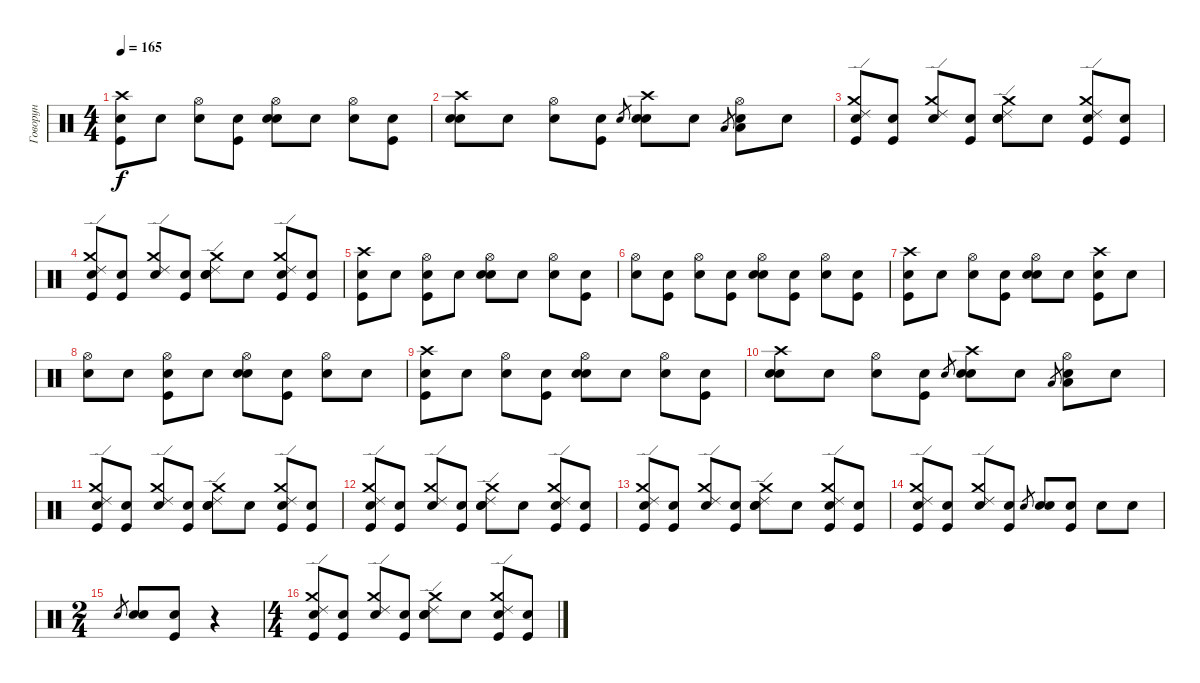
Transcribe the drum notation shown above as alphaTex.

\track ("Говорун" "Говорун") {instrument percussion}
\staff {score}
\articulation defaults
\ts (4 4)
\tempo 165
\clef neutral
\ks c
("Crash high (hit)" "Kick (hit)" "Snare (hit)"{x}).8{dy f} "Snare (hit)"{x}.8 ("Hi-Hat (open)" "Snare (hit)"{x}).8 ("Kick (hit)" "Snare (hit)"{x}).8 ("Hi-Hat (open)" "Snare (hit) 2" "Snare (hit)"{x}).8 "Snare (hit)"{x}.8 ("Hi-Hat (open)" "Snare (hit)"{x}).8 ("Kick (hit)" "Snare (hit)"{x}).8 |
("Crash high (hit)" "Snare (hit) 2" "Snare (hit)"{x}).8 "Snare (hit)"{x}.8 ("Hi-Hat (open)" "Snare (hit)"{x}).8 ("Kick (hit)" "Snare (hit)"{x}).8 "Snare (hit) 2".8{gr} ("Crash high (hit)" "Snare (hit) 2" "Snare (hit)"{x}).8 "Snare (hit)"{x}.8 "Low Tom (hit)".8{gr} ("Hi-Hat (open)" "Low Tom (hit)" "Snare (hit)"{x}).8 "Snare (hit)"{x}.8 |
("Crash medium (hit)" "Ride (edge) 2" "Kick (hit)" "Snare (hit)"{x}).8 ("Kick (hit)" "Snare (hit)"{x}).8 ("Crash medium (hit)" "Ride (edge) 2" "Snare (hit)"{x}).8 ("Kick (hit)" "Snare (hit)"{x}).8 ("Crash medium (hit)" "Ride (edge) 2" "Snare (hit) 2" "Snare (hit)"{x}).8 "Snare (hit)"{x}.8 ("Crash medium (hit)" "Ride (edge) 2" "Kick (hit)" "Snare (hit)"{x}).8 ("Kick (hit)" "Snare (hit)"{x}).8 |
("Crash medium (hit)" "Ride (edge) 2" "Kick (hit)" "Snare (hit)"{x}).8 ("Kick (hit)" "Snare (hit)"{x}).8 ("Crash medium (hit)" "Ride (edge) 2" "Snare (hit)"{x}).8 ("Kick (hit)" "Snare (hit)"{x}).8 ("Crash medium (hit)" "Ride (edge) 2" "Snare (hit) 2" "Snare (hit)"{x}).8 "Snare (hit)"{x}.8 ("Crash medium (hit)" "Ride (edge) 2" "Kick (hit)" "Snare (hit)"{x}).8 ("Kick (hit)" "Snare (hit)"{x}).8 |
("Crash high (hit)" "Kick (hit)" "Snare (hit)"{x}).8 "Snare (hit)"{x}.8 ("Hi-Hat (open)" "Kick (hit)" "Snare (hit)"{x}).8 "Snare (hit)"{x}.8 ("Hi-Hat (open)" "Snare (hit) 2" "Snare (hit)"{x}).8 "Snare (hit)"{x}.8 ("Hi-Hat (open)" "Snare (hit)"{x}).8 ("Kick (hit)" "Snare (hit)"{x}).8 |
("Hi-Hat (open)" "Snare (hit)"{x}).8 ("Kick (hit)" "Snare (hit)"{x}).8 ("Hi-Hat (open)" "Snare (hit)"{x}).8 ("Kick (hit)" "Snare (hit)"{x}).8 ("Hi-Hat (open)" "Snare (hit) 2" "Snare (hit)"{x}).8 ("Kick (hit)" "Snare (hit)"{x}).8 ("Hi-Hat (open)" "Snare (hit)"{x}).8 ("Kick (hit)" "Snare (hit)"{x}).8 |
("Crash high (hit)" "Kick (hit)" "Snare (hit)"{x}).8 "Snare (hit)"{x}.8 ("Hi-Hat (open)" "Snare (hit)"{x}).8 ("Kick (hit)" "Snare (hit)"{x}).8 ("Hi-Hat (open)" "Snare (hit) 2" "Snare (hit)"{x}).8 "Snare (hit)"{x}.8 ("Crash high (hit)" "Kick (hit)" "Snare (hit)"{x}).8 "Snare (hit)"{x}.8 |
("Hi-Hat (open)" "Snare (hit)"{x}).8 "Snare (hit)"{x}.8 ("Hi-Hat (open)" "Kick (hit)" "Snare (hit)"{x}).8 "Snare (hit)"{x}.8 ("Hi-Hat (open)" "Snare (hit) 2" "Snare (hit)"{x}).8 ("Kick (hit)" "Snare (hit)"{x}).8 ("Hi-Hat (open)" "Snare (hit)"{x}).8 "Snare (hit)"{x}.8 |
("Crash high (hit)" "Kick (hit)" "Snare (hit)"{x}).8 "Snare (hit)"{x}.8 ("Hi-Hat (open)" "Snare (hit)"{x}).8 ("Kick (hit)" "Snare (hit)"{x}).8 ("Hi-Hat (open)" "Snare (hit) 2" "Snare (hit)"{x}).8 "Snare (hit)"{x}.8 ("Hi-Hat (open)" "Snare (hit)"{x}).8 ("Kick (hit)" "Snare (hit)"{x}).8 |
("Crash high (hit)" "Snare (hit) 2" "Snare (hit)"{x}).8 "Snare (hit)"{x}.8 ("Hi-Hat (open)" "Snare (hit)"{x}).8 ("Kick (hit)" "Snare (hit)"{x}).8 "Snare (hit) 2".8{gr} ("Crash high (hit)" "Snare (hit) 2" "Snare (hit)"{x}).8 "Snare (hit)"{x}.8 "Low Tom (hit)".8{gr} ("Hi-Hat (open)" "Low Tom (hit)" "Snare (hit)"{x}).8 "Snare (hit)"{x}.8 |
("Crash medium (hit)" "Ride (edge) 2" "Kick (hit)" "Snare (hit)"{x}).8 ("Kick (hit)" "Snare (hit)"{x}).8 ("Crash medium (hit)" "Ride (edge) 2" "Snare (hit)"{x}).8 ("Kick (hit)" "Snare (hit)"{x}).8 ("Crash medium (hit)" "Ride (edge) 2" "Snare (hit) 2" "Snare (hit)"{x}).8 "Snare (hit)"{x}.8 ("Crash medium (hit)" "Ride (edge) 2" "Kick (hit)" "Snare (hit)"{x}).8 ("Kick (hit)" "Snare (hit)"{x}).8 |
("Crash medium (hit)" "Ride (edge) 2" "Kick (hit)" "Snare (hit)"{x}).8 ("Kick (hit)" "Snare (hit)"{x}).8 ("Crash medium (hit)" "Ride (edge) 2" "Snare (hit)"{x}).8 ("Kick (hit)" "Snare (hit)"{x}).8 ("Crash medium (hit)" "Ride (edge) 2" "Snare (hit) 2" "Snare (hit)"{x}).8 "Snare (hit)"{x}.8 ("Crash medium (hit)" "Ride (edge) 2" "Kick (hit)" "Snare (hit)"{x}).8 ("Kick (hit)" "Snare (hit)"{x}).8 |
("Crash medium (hit)" "Ride (edge) 2" "Kick (hit)" "Snare (hit)"{x}).8 ("Kick (hit)" "Snare (hit)"{x}).8 ("Crash medium (hit)" "Ride (edge) 2" "Snare (hit)"{x}).8 ("Kick (hit)" "Snare (hit)"{x}).8 ("Crash medium (hit)" "Ride (edge) 2" "Snare (hit) 2" "Snare (hit)"{x}).8 "Snare (hit)"{x}.8 ("Crash medium (hit)" "Ride (edge) 2" "Kick (hit)" "Snare (hit)"{x}).8 ("Kick (hit)" "Snare (hit)"{x}).8 |
("Crash medium (hit)" "Ride (edge) 2" "Kick (hit)" "Snare (hit)"{x}).8 ("Kick (hit)" "Snare (hit)"{x}).8 ("Crash medium (hit)" "Ride (edge) 2" "Snare (hit)"{x}).8 ("Kick (hit)" "Snare (hit)"{x}).8 "Snare (hit) 2".8{gr} ("Snare (hit) 2" "Snare (hit)"{x}).8 ("Kick (hit)" "Snare (hit)"{x}).8 "Snare (hit)"{x}.8 "Snare (hit)"{x}.8 |
\ts (2 4)
"Snare (hit) 2".8{gr} ("Snare (hit) 2" "Snare (hit)"{x}).8 ("Kick (hit)" "Snare (hit)"{x}).8 r.4 |
\ts (4 4)
("Crash medium (hit)" "Ride (edge) 2" "Kick (hit)" "Snare (hit)"{x}).8 ("Kick (hit)" "Snare (hit)"{x}).8 ("Crash medium (hit)" "Ride (edge) 2" "Snare (hit)"{x}).8 ("Kick (hit)" "Snare (hit)"{x}).8 ("Crash medium (hit)" "Ride (edge) 2" "Snare (hit) 2" "Snare (hit)"{x}).8 "Snare (hit)"{x}.8 ("Crash medium (hit)" "Ride (edge) 2" "Kick (hit)" "Snare (hit)"{x}).8 ("Kick (hit)" "Snare (hit)"{x}).8
